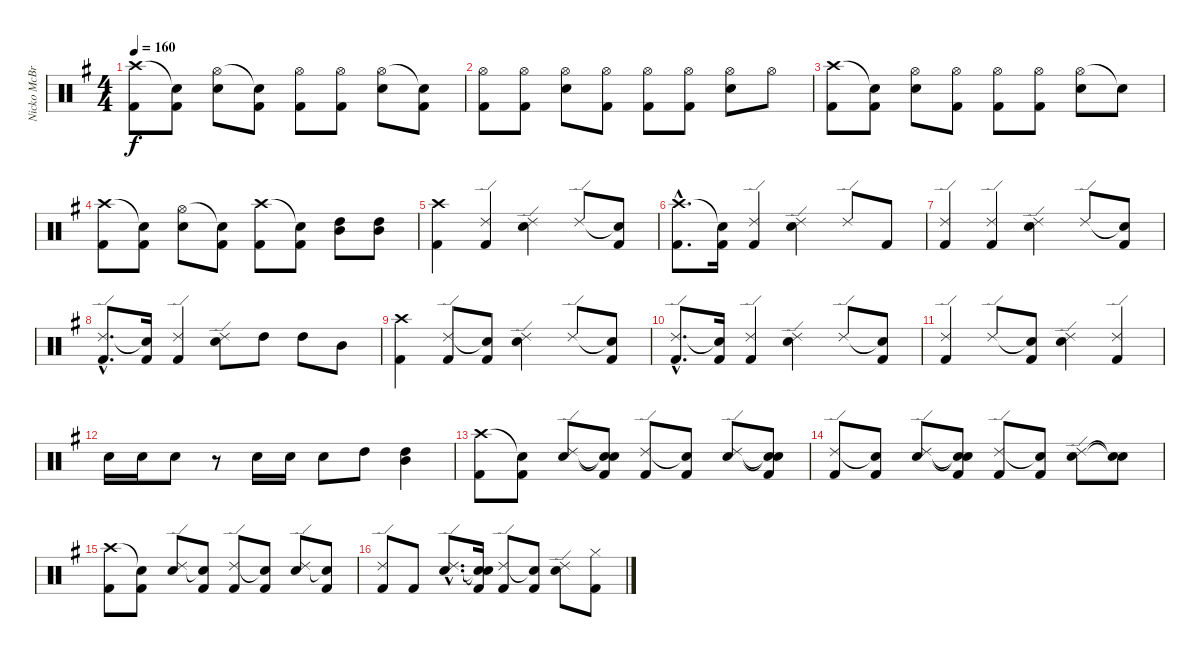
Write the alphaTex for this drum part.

\track ("Nicko McBrain" "Nicko McBr") {instrument percussion}
\staff {score}
\articulation defaults
\ts (4 4)
\tempo 160
\clef neutral
\ks g
("Crash high (hit)" "Kick (hit) 2").8{dy f} ("Snare (hit)"{t} "Kick (hit) 2").8 ("Hi-Hat (open)" "Electric Snare (hit)").8 ("Snare (hit)"{t} "Kick (hit) 2").8 ("Hi-Hat (open)" "Kick (hit) 2").8 ("Hi-Hat (open)" "Kick (hit) 2").8 ("Hi-Hat (open)" "Electric Snare (hit)").8 ("Snare (hit)"{t} "Kick (hit) 2").8 |
("Hi-Hat (open)" "Kick (hit) 2").8 ("Hi-Hat (open)" "Kick (hit) 2").8 ("Hi-Hat (open)" "Electric Snare (hit)").8 ("Hi-Hat (open)" "Kick (hit) 2").8 ("Hi-Hat (open)" "Kick (hit) 2").8 ("Hi-Hat (open)" "Kick (hit) 2").8 ("Hi-Hat (open)" "Electric Snare (hit)").8 "Hi-Hat (open)".8 |
("Crash high (hit)" "Kick (hit) 2").8 ("Snare (hit)"{t} "Kick (hit) 2").8 ("Hi-Hat (open)" "Electric Snare (hit)").8 ("Hi-Hat (open)" "Kick (hit) 2").8 ("Hi-Hat (open)" "Kick (hit) 2").8 ("Hi-Hat (open)" "Kick (hit) 2").8 ("Hi-Hat (open)" "Electric Snare (hit)").8 "Snare (hit)"{t}.8 |
("Crash high (hit)" "Kick (hit) 2").8 ("Snare (hit)"{t} "Kick (hit) 2").8 ("Hi-Hat (open)" "Electric Snare (hit)").8 ("Snare (hit)"{t} "Kick (hit) 2").8 ("Crash high (hit)" "Kick (hit) 2").8 ("Snare (hit)"{t} "Kick (hit) 2").8 ("Mid Tom (hit)" "High Tom (hit)").8 ("Mid Tom (hit)" "High Tom (hit)").8 |
("Kick (hit) 2" "Crash high (hit)").4 ("Ride (edge) 2" "Kick (hit) 2").4 ("Ride (edge) 2" "Electric Snare (hit)").4 "Ride (edge) 2".8 ("Snare (hit)"{t} "Kick (hit) 2").8 |
("Crash high (hit)"{hac} "Kick (hit) 2"{hac}).8{d} ("Snare (hit)"{t} "Kick (hit) 2").16 ("Ride (edge) 2" "Kick (hit) 2").4 ("Ride (edge) 2" "Electric Snare (hit)").4 "Ride (edge) 2".8 "Kick (hit) 2".8 |
("Ride (edge) 2" "Kick (hit) 2").4 ("Ride (edge) 2" "Kick (hit) 2").4 ("Ride (edge) 2" "Electric Snare (hit)").4 "Ride (edge) 2".8 ("Snare (hit)"{t} "Kick (hit) 2").8 |
("Ride (edge) 2"{hac} "Kick (hit) 2"{hac}).8{d} ("Snare (hit)"{t} "Kick (hit) 2").16 ("Ride (edge) 2" "Kick (hit) 2").4 ("Ride (edge) 2" "Electric Snare (hit)").8 "High Tom (hit)".8 "High Tom (hit)".8 "Mid Tom (hit)".8 |
("Crash high (hit)" "Kick (hit) 2").4 ("Ride (edge) 2" "Kick (hit) 2").8 ("Snare (hit)"{t} "Kick (hit) 2").8 ("Ride (edge) 2" "Electric Snare (hit)").4 "Ride (edge) 2".8 ("Snare (hit)"{t} "Kick (hit) 2").8 |
("Ride (edge) 2"{hac} "Kick (hit) 2"{hac}).8{d} ("Snare (hit)"{t} "Kick (hit) 2").16 ("Ride (edge) 2" "Kick (hit) 2").4 ("Ride (edge) 2" "Electric Snare (hit)").4 "Ride (edge) 2".8 ("Snare (hit)"{t} "Kick (hit) 2").8 |
("Ride (edge) 2" "Kick (hit) 2").4 "Ride (edge) 2".8 ("Snare (hit)"{t} "Kick (hit) 2").8 ("Ride (edge) 2" "Electric Snare (hit)").4 ("Ride (edge) 2" "Kick (hit) 2").4 |
"Electric Snare (hit)".16 "Electric Snare (hit)".16 "Electric Snare (hit)".8 r.8 "Electric Snare (hit)".16 "Electric Snare (hit)".16 "Electric Snare (hit)".8 "High Tom (hit)".8 ("High Tom (hit)" "Mid Tom (hit)").4 |
("Crash high (hit)" "Kick (hit) 2").8 ("Snare (hit)"{t} "Kick (hit) 2").8 ("Ride (edge) 2" "Electric Snare (hit)").8 ("Snare (hit)"{t} "Snare (hit)"{t} "Kick (hit) 2").8 ("Ride (edge) 2" "Kick (hit) 2").8 ("Snare (hit)"{t} "Kick (hit) 2").8 ("Ride (edge) 2" "Electric Snare (hit)").8 ("Snare (hit)"{t} "Snare (hit)"{t} "Kick (hit) 2").8 |
("Ride (edge) 2" "Kick (hit) 2").8 ("Snare (hit)"{t} "Kick (hit) 2").8 ("Ride (edge) 2" "Electric Snare (hit)").8 ("Snare (hit)"{t} "Snare (hit)"{t} "Kick (hit) 2").8 ("Ride (edge) 2" "Kick (hit) 2").8 ("Snare (hit)"{t} "Kick (hit) 2").8 ("Ride (edge) 2" "Electric Snare (hit)").8 ("Snare (hit)"{t} "Snare (hit)"{t}).8 |
("Crash high (hit)" "Kick (hit) 2").8 ("Snare (hit)"{t} "Kick (hit) 2").8 ("Ride (edge) 2" "Electric Snare (hit)").8 ("Snare (hit)"{t} "Kick (hit) 2").8 ("Ride (edge) 2" "Kick (hit) 2").8 ("Snare (hit)"{t} "Kick (hit) 2").8 ("Ride (edge) 2" "Electric Snare (hit)").8 ("Snare (hit)"{t} "Kick (hit) 2").8 |
("Ride (edge) 2" "Kick (hit) 2").8 "Kick (hit) 2".8 ("Ride (edge) 2"{hac} "Electric Snare (hit)"{hac}).8{d} ("Snare (hit)"{t} "Snare (hit)"{t} "Kick (hit) 2").16 ("Ride (edge) 2" "Kick (hit) 2").8 ("Snare (hit)"{t} "Kick (hit) 2").8 ("Ride (edge) 2" "Electric Snare (hit)").8 ("Hi-Hat (closed)" "Kick (hit) 2").8
